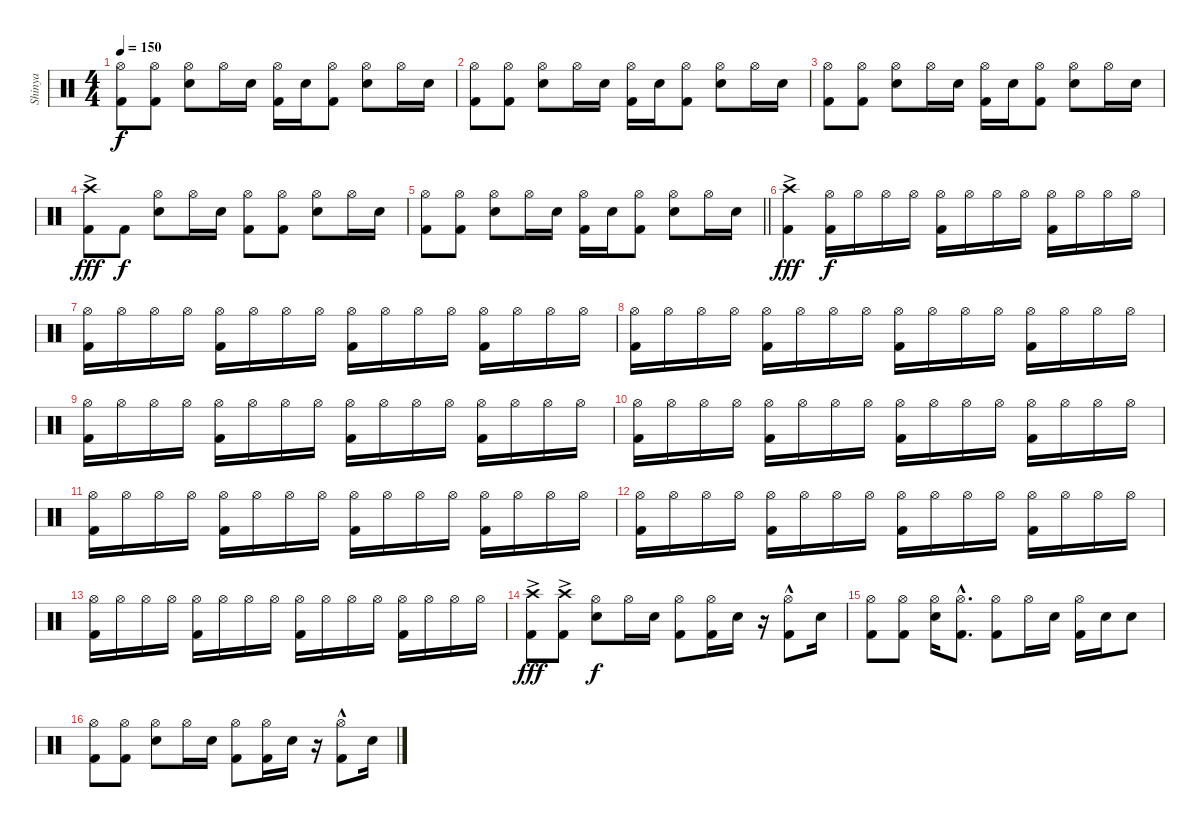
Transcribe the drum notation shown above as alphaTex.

\track ("Shinya" "Shinya") {instrument percussion}
\staff {score}
\articulation defaults
\ts (4 4)
\tempo 150
\clef neutral
\ks c
("Hi-Hat (open)" "Kick (hit) 2").8{dy f} ("Hi-Hat (open)" "Kick (hit) 2").8 ("Hi-Hat (open)" "Snare (hit) 2").8 "Hi-Hat (open)".16 "Snare (hit) 2".16 ("Hi-Hat (open)" "Kick (hit) 2").16 "Snare (hit) 2".16 ("Hi-Hat (open)" "Kick (hit) 2").8 ("Hi-Hat (open)" "Snare (hit) 2").8 "Hi-Hat (open)".16 "Snare (hit) 2".16 |
("Hi-Hat (open)" "Kick (hit) 2").8 ("Hi-Hat (open)" "Kick (hit) 2").8 ("Hi-Hat (open)" "Snare (hit) 2").8 "Hi-Hat (open)".16 "Snare (hit) 2".16 ("Hi-Hat (open)" "Kick (hit) 2").16 "Snare (hit) 2".16 ("Hi-Hat (open)" "Kick (hit) 2").8 ("Hi-Hat (open)" "Snare (hit) 2").8 "Hi-Hat (open)".16 "Snare (hit) 2".16 |
("Hi-Hat (open)" "Kick (hit) 2").8 ("Hi-Hat (open)" "Kick (hit) 2").8 ("Hi-Hat (open)" "Snare (hit) 2").8 "Hi-Hat (open)".16 "Snare (hit) 2".16 ("Hi-Hat (open)" "Kick (hit) 2").16 "Snare (hit) 2".16 ("Hi-Hat (open)" "Kick (hit) 2").8 ("Hi-Hat (open)" "Snare (hit) 2").8 "Hi-Hat (open)".16 "Snare (hit) 2".16 |
("Crash high (hit)"{ac} "Kick (hit) 2").8{dy fff} "Kick (hit) 2".8{dy f} ("Hi-Hat (open)" "Snare (hit) 2").8 "Hi-Hat (open)".16 "Snare (hit) 2".16 ("Hi-Hat (open)" "Kick (hit) 2").8 ("Hi-Hat (open)" "Kick (hit) 2").8 ("Hi-Hat (open)" "Snare (hit) 2").8 "Hi-Hat (open)".16 "Snare (hit) 2".16 |
\barLineRight lightlight
("Hi-Hat (open)" "Kick (hit) 2").8 ("Hi-Hat (open)" "Kick (hit) 2").8 ("Hi-Hat (open)" "Snare (hit) 2").8 "Hi-Hat (open)".16 "Snare (hit) 2".16 ("Hi-Hat (open)" "Kick (hit) 2").16 "Snare (hit) 2".16 ("Hi-Hat (open)" "Kick (hit) 2").8 ("Hi-Hat (open)" "Snare (hit) 2").8 "Hi-Hat (open)".16 "Snare (hit) 2".16 |
("Crash high (hit)"{ac} "Kick (hit) 2").4{dy fff} ("Hi-Hat (open)" "Kick (hit) 2").16{dy f} "Hi-Hat (open)".16 "Hi-Hat (open)".16 "Hi-Hat (open)".16 ("Hi-Hat (open)" "Kick (hit) 2").16 "Hi-Hat (open)".16 "Hi-Hat (open)".16 "Hi-Hat (open)".16 ("Hi-Hat (open)" "Kick (hit) 2").16 "Hi-Hat (open)".16 "Hi-Hat (open)".16 "Hi-Hat (open)".16 |
("Hi-Hat (open)" "Kick (hit) 2").16 "Hi-Hat (open)".16 "Hi-Hat (open)".16 "Hi-Hat (open)".16 ("Hi-Hat (open)" "Kick (hit) 2").16 "Hi-Hat (open)".16 "Hi-Hat (open)".16 "Hi-Hat (open)".16 ("Hi-Hat (open)" "Kick (hit) 2").16 "Hi-Hat (open)".16 "Hi-Hat (open)".16 "Hi-Hat (open)".16 ("Hi-Hat (open)" "Kick (hit) 2").16 "Hi-Hat (open)".16 "Hi-Hat (open)".16 "Hi-Hat (open)".16 |
("Hi-Hat (open)" "Kick (hit) 2").16 "Hi-Hat (open)".16 "Hi-Hat (open)".16 "Hi-Hat (open)".16 ("Hi-Hat (open)" "Kick (hit) 2").16 "Hi-Hat (open)".16 "Hi-Hat (open)".16 "Hi-Hat (open)".16 ("Hi-Hat (open)" "Kick (hit) 2").16 "Hi-Hat (open)".16 "Hi-Hat (open)".16 "Hi-Hat (open)".16 ("Hi-Hat (open)" "Kick (hit) 2").16 "Hi-Hat (open)".16 "Hi-Hat (open)".16 "Hi-Hat (open)".16 |
("Hi-Hat (open)" "Kick (hit) 2").16 "Hi-Hat (open)".16 "Hi-Hat (open)".16 "Hi-Hat (open)".16 ("Hi-Hat (open)" "Kick (hit) 2").16 "Hi-Hat (open)".16 "Hi-Hat (open)".16 "Hi-Hat (open)".16 ("Hi-Hat (open)" "Kick (hit) 2").16 "Hi-Hat (open)".16 "Hi-Hat (open)".16 "Hi-Hat (open)".16 ("Hi-Hat (open)" "Kick (hit) 2").16 "Hi-Hat (open)".16 "Hi-Hat (open)".16 "Hi-Hat (open)".16 |
("Hi-Hat (open)" "Kick (hit) 2").16 "Hi-Hat (open)".16 "Hi-Hat (open)".16 "Hi-Hat (open)".16 ("Hi-Hat (open)" "Kick (hit) 2").16 "Hi-Hat (open)".16 "Hi-Hat (open)".16 "Hi-Hat (open)".16 ("Hi-Hat (open)" "Kick (hit) 2").16 "Hi-Hat (open)".16 "Hi-Hat (open)".16 "Hi-Hat (open)".16 ("Hi-Hat (open)" "Kick (hit) 2").16 "Hi-Hat (open)".16 "Hi-Hat (open)".16 "Hi-Hat (open)".16 |
("Hi-Hat (open)" "Kick (hit) 2").16 "Hi-Hat (open)".16 "Hi-Hat (open)".16 "Hi-Hat (open)".16 ("Hi-Hat (open)" "Kick (hit) 2").16 "Hi-Hat (open)".16 "Hi-Hat (open)".16 "Hi-Hat (open)".16 ("Hi-Hat (open)" "Kick (hit) 2").16 "Hi-Hat (open)".16 "Hi-Hat (open)".16 "Hi-Hat (open)".16 ("Hi-Hat (open)" "Kick (hit) 2").16 "Hi-Hat (open)".16 "Hi-Hat (open)".16 "Hi-Hat (open)".16 |
("Hi-Hat (open)" "Kick (hit) 2").16 "Hi-Hat (open)".16 "Hi-Hat (open)".16 "Hi-Hat (open)".16 ("Hi-Hat (open)" "Kick (hit) 2").16 "Hi-Hat (open)".16 "Hi-Hat (open)".16 "Hi-Hat (open)".16 ("Hi-Hat (open)" "Kick (hit) 2").16 "Hi-Hat (open)".16 "Hi-Hat (open)".16 "Hi-Hat (open)".16 ("Hi-Hat (open)" "Kick (hit) 2").16 "Hi-Hat (open)".16 "Hi-Hat (open)".16 "Hi-Hat (open)".16 |
("Hi-Hat (open)" "Kick (hit) 2").16 "Hi-Hat (open)".16 "Hi-Hat (open)".16 "Hi-Hat (open)".16 ("Hi-Hat (open)" "Kick (hit) 2").16 "Hi-Hat (open)".16 "Hi-Hat (open)".16 "Hi-Hat (open)".16 ("Hi-Hat (open)" "Kick (hit) 2").16 "Hi-Hat (open)".16 "Hi-Hat (open)".16 "Hi-Hat (open)".16 ("Hi-Hat (open)" "Kick (hit) 2").16 "Hi-Hat (open)".16 "Hi-Hat (open)".16 "Hi-Hat (open)".16 |
("Crash high (hit)"{ac} "Kick (hit) 2").8{dy fff} ("Crash high (hit)"{ac} "Kick (hit) 2").8 ("Hi-Hat (open)" "Snare (hit) 2").8{dy f} "Hi-Hat (open)".16 "Snare (hit) 2".16 ("Hi-Hat (open)" "Kick (hit) 2").8 ("Hi-Hat (open)" "Kick (hit) 2").16 "Snare (hit) 2".16 r.16 ("Hi-Hat (open)" "Kick (hit) 2"{hac}).8 "Snare (hit) 2".16 |
("Hi-Hat (open)" "Kick (hit) 2").8 ("Hi-Hat (open)" "Kick (hit) 2").8 ("Hi-Hat (open)" "Snare (hit) 2").16 ("Hi-Hat (open)"{hac} "Kick (hit) 2"{hac}).8{d} ("Hi-Hat (open)" "Kick (hit) 2").8 "Hi-Hat (open)".16 "Snare (hit) 2".16 ("Hi-Hat (open)" "Kick (hit) 2").16 "Snare (hit) 2".16 "Snare (hit) 2".8 |
("Hi-Hat (open)" "Kick (hit) 2").8 ("Hi-Hat (open)" "Kick (hit) 2").8 ("Hi-Hat (open)" "Snare (hit) 2").8 "Hi-Hat (open)".16 "Snare (hit) 2".16 ("Hi-Hat (open)" "Kick (hit) 2").8 ("Hi-Hat (open)" "Kick (hit) 2").16 "Snare (hit) 2".16 r.16 ("Hi-Hat (open)" "Kick (hit) 2"{hac}).8 "Snare (hit) 2".16
